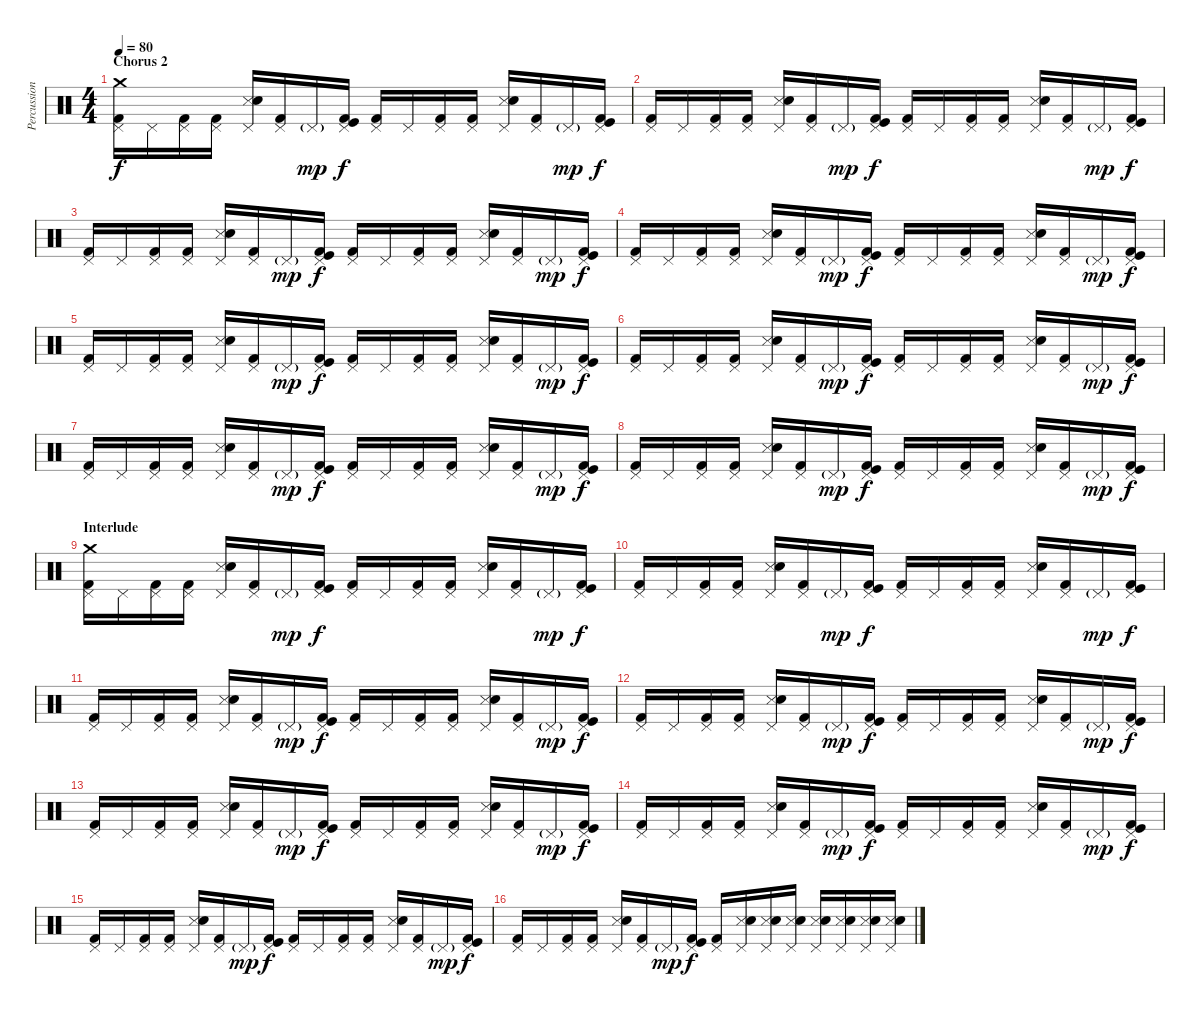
\track ("Percussions" "Percussion") {instrument percussion}
\staff {score}
\articulation defaults
\ts (4 4)
\section ("" "Chorus 2")
\tempo 80
\clef neutral
\ks c
("Crash medium (hit)" "Pedal Hi-Hat (hit)" "Kick (hit) 2").16{dy f} "Pedal Hi-Hat (hit)".16 ("Pedal Hi-Hat (hit)" "Kick (hit) 2").16 ("Pedal Hi-Hat (hit)" "Kick (hit) 2").16 ("Pedal Hi-Hat (hit)" "Snare (side stick) 3" "Electric Snare (hit)").16 ("Pedal Hi-Hat (hit)" "Kick (hit) 2").16 "Pedal Hi-Hat (hit)"{g}.16{dy mp} ("Pedal Hi-Hat (hit)" "Kick (hit) 2" "Kick (hit)").16{dy f} ("Pedal Hi-Hat (hit)" "Kick (hit) 2").16 "Pedal Hi-Hat (hit)".16 ("Pedal Hi-Hat (hit)" "Kick (hit) 2").16 ("Pedal Hi-Hat (hit)" "Kick (hit) 2").16 ("Pedal Hi-Hat (hit)" "Snare (side stick) 3" "Electric Snare (hit)").16 ("Pedal Hi-Hat (hit)" "Kick (hit) 2").16 "Pedal Hi-Hat (hit)"{g}.16{dy mp} ("Pedal Hi-Hat (hit)" "Kick (hit) 2" "Kick (hit)").16{dy f} |
("Pedal Hi-Hat (hit)" "Kick (hit) 2").16 "Pedal Hi-Hat (hit)".16 ("Pedal Hi-Hat (hit)" "Kick (hit) 2").16 ("Pedal Hi-Hat (hit)" "Kick (hit) 2").16 ("Pedal Hi-Hat (hit)" "Snare (side stick) 3" "Electric Snare (hit)").16 ("Pedal Hi-Hat (hit)" "Kick (hit) 2").16 "Pedal Hi-Hat (hit)"{g}.16{dy mp} ("Pedal Hi-Hat (hit)" "Kick (hit) 2" "Kick (hit)").16{dy f} ("Pedal Hi-Hat (hit)" "Kick (hit) 2").16 "Pedal Hi-Hat (hit)".16 ("Pedal Hi-Hat (hit)" "Kick (hit) 2").16 ("Pedal Hi-Hat (hit)" "Kick (hit) 2").16 ("Pedal Hi-Hat (hit)" "Snare (side stick) 3" "Electric Snare (hit)").16 ("Pedal Hi-Hat (hit)" "Kick (hit) 2").16 "Pedal Hi-Hat (hit)"{g}.16{dy mp} ("Pedal Hi-Hat (hit)" "Kick (hit) 2" "Kick (hit)").16{dy f} |
("Pedal Hi-Hat (hit)" "Kick (hit) 2").16 "Pedal Hi-Hat (hit)".16 ("Pedal Hi-Hat (hit)" "Kick (hit) 2").16 ("Pedal Hi-Hat (hit)" "Kick (hit) 2").16 ("Pedal Hi-Hat (hit)" "Snare (side stick) 3" "Electric Snare (hit)").16 ("Pedal Hi-Hat (hit)" "Kick (hit) 2").16 "Pedal Hi-Hat (hit)"{g}.16{dy mp} ("Pedal Hi-Hat (hit)" "Kick (hit) 2" "Kick (hit)").16{dy f} ("Pedal Hi-Hat (hit)" "Kick (hit) 2").16 "Pedal Hi-Hat (hit)".16 ("Pedal Hi-Hat (hit)" "Kick (hit) 2").16 ("Pedal Hi-Hat (hit)" "Kick (hit) 2").16 ("Pedal Hi-Hat (hit)" "Snare (side stick) 3" "Electric Snare (hit)").16 ("Pedal Hi-Hat (hit)" "Kick (hit) 2").16 "Pedal Hi-Hat (hit)"{g}.16{dy mp} ("Pedal Hi-Hat (hit)" "Kick (hit) 2" "Kick (hit)").16{dy f} |
("Pedal Hi-Hat (hit)" "Kick (hit) 2").16 "Pedal Hi-Hat (hit)".16 ("Pedal Hi-Hat (hit)" "Kick (hit) 2").16 ("Pedal Hi-Hat (hit)" "Kick (hit) 2").16 ("Pedal Hi-Hat (hit)" "Snare (side stick) 3" "Electric Snare (hit)").16 ("Pedal Hi-Hat (hit)" "Kick (hit) 2").16 "Pedal Hi-Hat (hit)"{g}.16{dy mp} ("Pedal Hi-Hat (hit)" "Kick (hit) 2" "Kick (hit)").16{dy f} ("Pedal Hi-Hat (hit)" "Kick (hit) 2").16 "Pedal Hi-Hat (hit)".16 ("Pedal Hi-Hat (hit)" "Kick (hit) 2").16 ("Pedal Hi-Hat (hit)" "Kick (hit) 2").16 ("Pedal Hi-Hat (hit)" "Snare (side stick) 3" "Electric Snare (hit)").16 ("Pedal Hi-Hat (hit)" "Kick (hit) 2").16 "Pedal Hi-Hat (hit)"{g}.16{dy mp} ("Pedal Hi-Hat (hit)" "Kick (hit) 2" "Kick (hit)").16{dy f} |
("Pedal Hi-Hat (hit)" "Kick (hit) 2").16 "Pedal Hi-Hat (hit)".16 ("Pedal Hi-Hat (hit)" "Kick (hit) 2").16 ("Pedal Hi-Hat (hit)" "Kick (hit) 2").16 ("Pedal Hi-Hat (hit)" "Snare (side stick) 3" "Electric Snare (hit)").16 ("Pedal Hi-Hat (hit)" "Kick (hit) 2").16 "Pedal Hi-Hat (hit)"{g}.16{dy mp} ("Pedal Hi-Hat (hit)" "Kick (hit) 2" "Kick (hit)").16{dy f} ("Pedal Hi-Hat (hit)" "Kick (hit) 2").16 "Pedal Hi-Hat (hit)".16 ("Pedal Hi-Hat (hit)" "Kick (hit) 2").16 ("Pedal Hi-Hat (hit)" "Kick (hit) 2").16 ("Pedal Hi-Hat (hit)" "Snare (side stick) 3" "Electric Snare (hit)").16 ("Pedal Hi-Hat (hit)" "Kick (hit) 2").16 "Pedal Hi-Hat (hit)"{g}.16{dy mp} ("Pedal Hi-Hat (hit)" "Kick (hit) 2" "Kick (hit)").16{dy f} |
("Pedal Hi-Hat (hit)" "Kick (hit) 2").16 "Pedal Hi-Hat (hit)".16 ("Pedal Hi-Hat (hit)" "Kick (hit) 2").16 ("Pedal Hi-Hat (hit)" "Kick (hit) 2").16 ("Pedal Hi-Hat (hit)" "Snare (side stick) 3" "Electric Snare (hit)").16 ("Pedal Hi-Hat (hit)" "Kick (hit) 2").16 "Pedal Hi-Hat (hit)"{g}.16{dy mp} ("Pedal Hi-Hat (hit)" "Kick (hit) 2" "Kick (hit)").16{dy f} ("Pedal Hi-Hat (hit)" "Kick (hit) 2").16 "Pedal Hi-Hat (hit)".16 ("Pedal Hi-Hat (hit)" "Kick (hit) 2").16 ("Pedal Hi-Hat (hit)" "Kick (hit) 2").16 ("Pedal Hi-Hat (hit)" "Snare (side stick) 3" "Electric Snare (hit)").16 ("Pedal Hi-Hat (hit)" "Kick (hit) 2").16 "Pedal Hi-Hat (hit)"{g}.16{dy mp} ("Pedal Hi-Hat (hit)" "Kick (hit) 2" "Kick (hit)").16{dy f} |
("Pedal Hi-Hat (hit)" "Kick (hit) 2").16 "Pedal Hi-Hat (hit)".16 ("Pedal Hi-Hat (hit)" "Kick (hit) 2").16 ("Pedal Hi-Hat (hit)" "Kick (hit) 2").16 ("Pedal Hi-Hat (hit)" "Snare (side stick) 3" "Electric Snare (hit)").16 ("Pedal Hi-Hat (hit)" "Kick (hit) 2").16 "Pedal Hi-Hat (hit)"{g}.16{dy mp} ("Pedal Hi-Hat (hit)" "Kick (hit) 2" "Kick (hit)").16{dy f} ("Pedal Hi-Hat (hit)" "Kick (hit) 2").16 "Pedal Hi-Hat (hit)".16 ("Pedal Hi-Hat (hit)" "Kick (hit) 2").16 ("Pedal Hi-Hat (hit)" "Kick (hit) 2").16 ("Pedal Hi-Hat (hit)" "Snare (side stick) 3" "Electric Snare (hit)").16 ("Pedal Hi-Hat (hit)" "Kick (hit) 2").16 "Pedal Hi-Hat (hit)"{g}.16{dy mp} ("Pedal Hi-Hat (hit)" "Kick (hit) 2" "Kick (hit)").16{dy f} |
("Pedal Hi-Hat (hit)" "Kick (hit) 2").16 "Pedal Hi-Hat (hit)".16 ("Pedal Hi-Hat (hit)" "Kick (hit) 2").16 ("Pedal Hi-Hat (hit)" "Kick (hit) 2").16 ("Pedal Hi-Hat (hit)" "Snare (side stick) 3" "Electric Snare (hit)").16 ("Pedal Hi-Hat (hit)" "Kick (hit) 2").16 "Pedal Hi-Hat (hit)"{g}.16{dy mp} ("Pedal Hi-Hat (hit)" "Kick (hit) 2" "Kick (hit)").16{dy f} ("Pedal Hi-Hat (hit)" "Kick (hit) 2").16 "Pedal Hi-Hat (hit)".16 ("Pedal Hi-Hat (hit)" "Kick (hit) 2").16 ("Pedal Hi-Hat (hit)" "Kick (hit) 2").16 ("Pedal Hi-Hat (hit)" "Snare (side stick) 3" "Electric Snare (hit)").16 ("Pedal Hi-Hat (hit)" "Kick (hit) 2").16 "Pedal Hi-Hat (hit)"{g}.16{dy mp} ("Pedal Hi-Hat (hit)" "Kick (hit) 2" "Kick (hit)").16{dy f} |
\section ("" "Interlude")
("Crash medium (hit)" "Pedal Hi-Hat (hit)" "Kick (hit) 2").16 "Pedal Hi-Hat (hit)".16 ("Pedal Hi-Hat (hit)" "Kick (hit) 2").16 ("Pedal Hi-Hat (hit)" "Kick (hit) 2").16 ("Pedal Hi-Hat (hit)" "Snare (side stick) 3" "Electric Snare (hit)").16 ("Pedal Hi-Hat (hit)" "Kick (hit) 2").16 "Pedal Hi-Hat (hit)"{g}.16{dy mp} ("Pedal Hi-Hat (hit)" "Kick (hit) 2" "Kick (hit)").16{dy f} ("Pedal Hi-Hat (hit)" "Kick (hit) 2").16 "Pedal Hi-Hat (hit)".16 ("Pedal Hi-Hat (hit)" "Kick (hit) 2").16 ("Pedal Hi-Hat (hit)" "Kick (hit) 2").16 ("Pedal Hi-Hat (hit)" "Snare (side stick) 3" "Electric Snare (hit)").16 ("Pedal Hi-Hat (hit)" "Kick (hit) 2").16 "Pedal Hi-Hat (hit)"{g}.16{dy mp} ("Pedal Hi-Hat (hit)" "Kick (hit) 2" "Kick (hit)").16{dy f} |
("Pedal Hi-Hat (hit)" "Kick (hit) 2").16 "Pedal Hi-Hat (hit)".16 ("Pedal Hi-Hat (hit)" "Kick (hit) 2").16 ("Pedal Hi-Hat (hit)" "Kick (hit) 2").16 ("Pedal Hi-Hat (hit)" "Snare (side stick) 3" "Electric Snare (hit)").16 ("Pedal Hi-Hat (hit)" "Kick (hit) 2").16 "Pedal Hi-Hat (hit)"{g}.16{dy mp} ("Pedal Hi-Hat (hit)" "Kick (hit) 2" "Kick (hit)").16{dy f} ("Pedal Hi-Hat (hit)" "Kick (hit) 2").16 "Pedal Hi-Hat (hit)".16 ("Pedal Hi-Hat (hit)" "Kick (hit) 2").16 ("Pedal Hi-Hat (hit)" "Kick (hit) 2").16 ("Pedal Hi-Hat (hit)" "Snare (side stick) 3" "Electric Snare (hit)").16 ("Pedal Hi-Hat (hit)" "Kick (hit) 2").16 "Pedal Hi-Hat (hit)"{g}.16{dy mp} ("Pedal Hi-Hat (hit)" "Kick (hit) 2" "Kick (hit)").16{dy f} |
("Pedal Hi-Hat (hit)" "Kick (hit) 2").16 "Pedal Hi-Hat (hit)".16 ("Pedal Hi-Hat (hit)" "Kick (hit) 2").16 ("Pedal Hi-Hat (hit)" "Kick (hit) 2").16 ("Pedal Hi-Hat (hit)" "Snare (side stick) 3" "Electric Snare (hit)").16 ("Pedal Hi-Hat (hit)" "Kick (hit) 2").16 "Pedal Hi-Hat (hit)"{g}.16{dy mp} ("Pedal Hi-Hat (hit)" "Kick (hit) 2" "Kick (hit)").16{dy f} ("Pedal Hi-Hat (hit)" "Kick (hit) 2").16 "Pedal Hi-Hat (hit)".16 ("Pedal Hi-Hat (hit)" "Kick (hit) 2").16 ("Pedal Hi-Hat (hit)" "Kick (hit) 2").16 ("Pedal Hi-Hat (hit)" "Snare (side stick) 3" "Electric Snare (hit)").16 ("Pedal Hi-Hat (hit)" "Kick (hit) 2").16 "Pedal Hi-Hat (hit)"{g}.16{dy mp} ("Pedal Hi-Hat (hit)" "Kick (hit) 2" "Kick (hit)").16{dy f} |
("Pedal Hi-Hat (hit)" "Kick (hit) 2").16 "Pedal Hi-Hat (hit)".16 ("Pedal Hi-Hat (hit)" "Kick (hit) 2").16 ("Pedal Hi-Hat (hit)" "Kick (hit) 2").16 ("Pedal Hi-Hat (hit)" "Snare (side stick) 3" "Electric Snare (hit)").16 ("Pedal Hi-Hat (hit)" "Kick (hit) 2").16 "Pedal Hi-Hat (hit)"{g}.16{dy mp} ("Pedal Hi-Hat (hit)" "Kick (hit) 2" "Kick (hit)").16{dy f} ("Pedal Hi-Hat (hit)" "Kick (hit) 2").16 "Pedal Hi-Hat (hit)".16 ("Pedal Hi-Hat (hit)" "Kick (hit) 2").16 ("Pedal Hi-Hat (hit)" "Kick (hit) 2").16 ("Pedal Hi-Hat (hit)" "Snare (side stick) 3" "Electric Snare (hit)").16 ("Pedal Hi-Hat (hit)" "Kick (hit) 2").16 "Pedal Hi-Hat (hit)"{g}.16{dy mp} ("Pedal Hi-Hat (hit)" "Kick (hit) 2" "Kick (hit)").16{dy f} |
("Pedal Hi-Hat (hit)" "Kick (hit) 2").16 "Pedal Hi-Hat (hit)".16 ("Pedal Hi-Hat (hit)" "Kick (hit) 2").16 ("Pedal Hi-Hat (hit)" "Kick (hit) 2").16 ("Pedal Hi-Hat (hit)" "Snare (side stick) 3" "Electric Snare (hit)").16 ("Pedal Hi-Hat (hit)" "Kick (hit) 2").16 "Pedal Hi-Hat (hit)"{g}.16{dy mp} ("Pedal Hi-Hat (hit)" "Kick (hit) 2" "Kick (hit)").16{dy f} ("Pedal Hi-Hat (hit)" "Kick (hit) 2").16 "Pedal Hi-Hat (hit)".16 ("Pedal Hi-Hat (hit)" "Kick (hit) 2").16 ("Pedal Hi-Hat (hit)" "Kick (hit) 2").16 ("Pedal Hi-Hat (hit)" "Snare (side stick) 3" "Electric Snare (hit)").16 ("Pedal Hi-Hat (hit)" "Kick (hit) 2").16 "Pedal Hi-Hat (hit)"{g}.16{dy mp} ("Pedal Hi-Hat (hit)" "Kick (hit) 2" "Kick (hit)").16{dy f} |
("Pedal Hi-Hat (hit)" "Kick (hit) 2").16 "Pedal Hi-Hat (hit)".16 ("Pedal Hi-Hat (hit)" "Kick (hit) 2").16 ("Pedal Hi-Hat (hit)" "Kick (hit) 2").16 ("Pedal Hi-Hat (hit)" "Snare (side stick) 3" "Electric Snare (hit)").16 ("Pedal Hi-Hat (hit)" "Kick (hit) 2").16 "Pedal Hi-Hat (hit)"{g}.16{dy mp} ("Pedal Hi-Hat (hit)" "Kick (hit) 2" "Kick (hit)").16{dy f} ("Pedal Hi-Hat (hit)" "Kick (hit) 2").16 "Pedal Hi-Hat (hit)".16 ("Pedal Hi-Hat (hit)" "Kick (hit) 2").16 ("Pedal Hi-Hat (hit)" "Kick (hit) 2").16 ("Pedal Hi-Hat (hit)" "Snare (side stick) 3" "Electric Snare (hit)").16 ("Pedal Hi-Hat (hit)" "Kick (hit) 2").16 "Pedal Hi-Hat (hit)"{g}.16{dy mp} ("Pedal Hi-Hat (hit)" "Kick (hit) 2" "Kick (hit)").16{dy f} |
("Pedal Hi-Hat (hit)" "Kick (hit) 2").16 "Pedal Hi-Hat (hit)".16 ("Pedal Hi-Hat (hit)" "Kick (hit) 2").16 ("Pedal Hi-Hat (hit)" "Kick (hit) 2").16 ("Pedal Hi-Hat (hit)" "Snare (side stick) 3" "Electric Snare (hit)").16 ("Pedal Hi-Hat (hit)" "Kick (hit) 2").16 "Pedal Hi-Hat (hit)"{g}.16{dy mp} ("Pedal Hi-Hat (hit)" "Kick (hit) 2" "Kick (hit)").16{dy f} ("Pedal Hi-Hat (hit)" "Kick (hit) 2").16 "Pedal Hi-Hat (hit)".16 ("Pedal Hi-Hat (hit)" "Kick (hit) 2").16 ("Pedal Hi-Hat (hit)" "Kick (hit) 2").16 ("Pedal Hi-Hat (hit)" "Snare (side stick) 3" "Electric Snare (hit)").16 ("Pedal Hi-Hat (hit)" "Kick (hit) 2").16 "Pedal Hi-Hat (hit)"{g}.16{dy mp} ("Pedal Hi-Hat (hit)" "Kick (hit) 2" "Kick (hit)").16{dy f} |
("Pedal Hi-Hat (hit)" "Kick (hit) 2").16 "Pedal Hi-Hat (hit)".16 ("Pedal Hi-Hat (hit)" "Kick (hit) 2").16 ("Pedal Hi-Hat (hit)" "Kick (hit) 2").16 ("Pedal Hi-Hat (hit)" "Snare (side stick) 3" "Electric Snare (hit)").16 ("Pedal Hi-Hat (hit)" "Kick (hit) 2").16 "Pedal Hi-Hat (hit)"{g}.16{dy mp} ("Pedal Hi-Hat (hit)" "Kick (hit) 2" "Kick (hit)").16{dy f} ("Pedal Hi-Hat (hit)" "Kick (hit) 2").16 ("Pedal Hi-Hat (hit)" "Snare (side stick) 3" "Electric Snare (hit)").16 ("Pedal Hi-Hat (hit)" "Snare (side stick) 3" "Electric Snare (hit)").16 ("Pedal Hi-Hat (hit)" "Snare (side stick) 3" "Electric Snare (hit)").16 ("Pedal Hi-Hat (hit)" "Snare (side stick) 3" "Electric Snare (hit)").16 ("Pedal Hi-Hat (hit)" "Snare (side stick) 3" "Electric Snare (hit)").16 ("Pedal Hi-Hat (hit)" "Snare (side stick) 3" "Electric Snare (hit)").16 ("Pedal Hi-Hat (hit)" "Snare (side stick) 3" "Electric Snare (hit)").16
